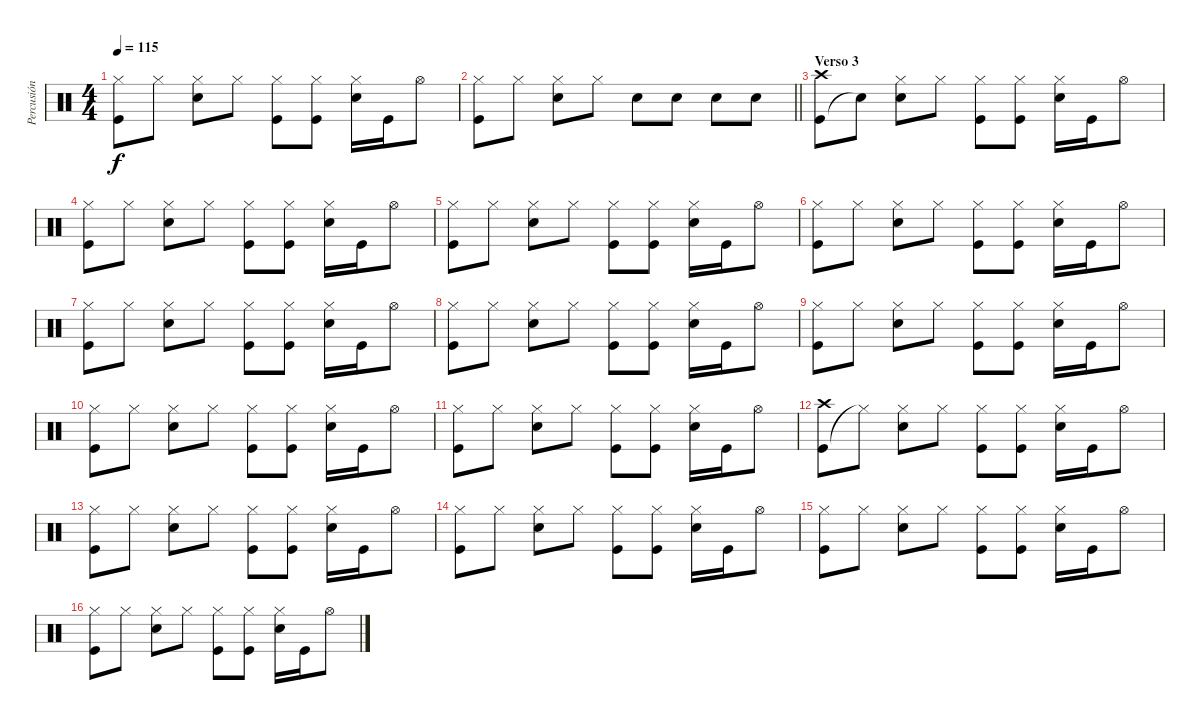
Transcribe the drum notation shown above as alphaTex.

\track ("Percusión" "Percusión") {instrument percussion}
\staff {score}
\articulation defaults
\ts (4 4)
\tempo 115
\clef neutral
\ks c
("Kick (hit)" "Hi-Hat (closed)").8{dy f} "Hi-Hat (closed)".8 ("Snare (hit) 2" "Hi-Hat (closed)").8 "Hi-Hat (closed)".8 ("Kick (hit)" "Hi-Hat (closed)").8 ("Kick (hit)" "Hi-Hat (closed)").8 ("Snare (hit) 2" "Hi-Hat (closed)").16 "Kick (hit)".16 "Hi-Hat (open)".8 |
\barLineRight lightlight
("Kick (hit)" "Hi-Hat (closed)").8 "Hi-Hat (closed)".8 ("Snare (hit) 2" "Hi-Hat (closed)").8 "Hi-Hat (closed)".8 "Snare (hit) 2".8 "Snare (hit) 2".8 "Snare (hit) 2".8 "Snare (hit) 2".8 |
\section ("" "Verso 3")
("Kick (hit)" "Crash high (hit)").8 "Snare (hit)"{t}.8 ("Snare (hit) 2" "Hi-Hat (closed)").8 "Hi-Hat (closed)".8 ("Kick (hit)" "Hi-Hat (closed)").8 ("Kick (hit)" "Hi-Hat (closed)").8 ("Snare (hit) 2" "Hi-Hat (closed)").16 "Kick (hit)".16 "Hi-Hat (open)".8 |
("Kick (hit)" "Hi-Hat (closed)").8 "Hi-Hat (closed)".8 ("Snare (hit) 2" "Hi-Hat (closed)").8 "Hi-Hat (closed)".8 ("Kick (hit)" "Hi-Hat (closed)").8 ("Kick (hit)" "Hi-Hat (closed)").8 ("Snare (hit) 2" "Hi-Hat (closed)").16 "Kick (hit)".16 "Hi-Hat (open)".8 |
("Kick (hit)" "Hi-Hat (closed)").8 "Hi-Hat (closed)".8 ("Snare (hit) 2" "Hi-Hat (closed)").8 "Hi-Hat (closed)".8 ("Kick (hit)" "Hi-Hat (closed)").8 ("Kick (hit)" "Hi-Hat (closed)").8 ("Snare (hit) 2" "Hi-Hat (closed)").16 "Kick (hit)".16 "Hi-Hat (open)".8 |
("Kick (hit)" "Hi-Hat (closed)").8 "Hi-Hat (closed)".8 ("Snare (hit) 2" "Hi-Hat (closed)").8 "Hi-Hat (closed)".8 ("Kick (hit)" "Hi-Hat (closed)").8 ("Kick (hit)" "Hi-Hat (closed)").8 ("Snare (hit) 2" "Hi-Hat (closed)").16 "Kick (hit)".16 "Hi-Hat (open)".8 |
("Kick (hit)" "Hi-Hat (closed)").8 "Hi-Hat (closed)".8 ("Snare (hit) 2" "Hi-Hat (closed)").8 "Hi-Hat (closed)".8 ("Kick (hit)" "Hi-Hat (closed)").8 ("Kick (hit)" "Hi-Hat (closed)").8 ("Snare (hit) 2" "Hi-Hat (closed)").16 "Kick (hit)".16 "Hi-Hat (open)".8 |
("Kick (hit)" "Hi-Hat (closed)").8 "Hi-Hat (closed)".8 ("Snare (hit) 2" "Hi-Hat (closed)").8 "Hi-Hat (closed)".8 ("Kick (hit)" "Hi-Hat (closed)").8 ("Kick (hit)" "Hi-Hat (closed)").8 ("Snare (hit) 2" "Hi-Hat (closed)").16 "Kick (hit)".16 "Hi-Hat (open)".8 |
("Kick (hit)" "Hi-Hat (closed)").8 "Hi-Hat (closed)".8 ("Snare (hit) 2" "Hi-Hat (closed)").8 "Hi-Hat (closed)".8 ("Kick (hit)" "Hi-Hat (closed)").8 ("Kick (hit)" "Hi-Hat (closed)").8 ("Snare (hit) 2" "Hi-Hat (closed)").16 "Kick (hit)".16 "Hi-Hat (open)".8 |
("Kick (hit)" "Hi-Hat (closed)").8 "Hi-Hat (closed)".8 ("Snare (hit) 2" "Hi-Hat (closed)").8 "Hi-Hat (closed)".8 ("Kick (hit)" "Hi-Hat (closed)").8 ("Kick (hit)" "Hi-Hat (closed)").8 ("Snare (hit) 2" "Hi-Hat (closed)").16 "Kick (hit)".16 "Hi-Hat (open)".8 |
("Kick (hit)" "Hi-Hat (closed)").8 "Hi-Hat (closed)".8 ("Snare (hit) 2" "Hi-Hat (closed)").8 "Hi-Hat (closed)".8 ("Kick (hit)" "Hi-Hat (closed)").8 ("Kick (hit)" "Hi-Hat (closed)").8 ("Snare (hit) 2" "Hi-Hat (closed)").16 "Kick (hit)".16 "Hi-Hat (open)".8 |
("Kick (hit)" "Crash high (hit)").8 "Hi-Hat (closed)"{t}.8 ("Snare (hit) 2" "Hi-Hat (closed)").8 "Hi-Hat (closed)".8 ("Kick (hit)" "Hi-Hat (closed)").8 ("Kick (hit)" "Hi-Hat (closed)").8 ("Snare (hit) 2" "Hi-Hat (closed)").16 "Kick (hit)".16 "Hi-Hat (open)".8 |
("Kick (hit)" "Hi-Hat (closed)").8 "Hi-Hat (closed)".8 ("Snare (hit) 2" "Hi-Hat (closed)").8 "Hi-Hat (closed)".8 ("Kick (hit)" "Hi-Hat (closed)").8 ("Kick (hit)" "Hi-Hat (closed)").8 ("Snare (hit) 2" "Hi-Hat (closed)").16 "Kick (hit)".16 "Hi-Hat (open)".8 |
("Kick (hit)" "Hi-Hat (closed)").8 "Hi-Hat (closed)".8 ("Snare (hit) 2" "Hi-Hat (closed)").8 "Hi-Hat (closed)".8 ("Kick (hit)" "Hi-Hat (closed)").8 ("Kick (hit)" "Hi-Hat (closed)").8 ("Snare (hit) 2" "Hi-Hat (closed)").16 "Kick (hit)".16 "Hi-Hat (open)".8 |
("Kick (hit)" "Hi-Hat (closed)").8 "Hi-Hat (closed)".8 ("Snare (hit) 2" "Hi-Hat (closed)").8 "Hi-Hat (closed)".8 ("Kick (hit)" "Hi-Hat (closed)").8 ("Kick (hit)" "Hi-Hat (closed)").8 ("Snare (hit) 2" "Hi-Hat (closed)").16 "Kick (hit)".16 "Hi-Hat (open)".8 |
("Kick (hit)" "Hi-Hat (closed)").8 "Hi-Hat (closed)".8 ("Snare (hit) 2" "Hi-Hat (closed)").8 "Hi-Hat (closed)".8 ("Kick (hit)" "Hi-Hat (closed)").8 ("Kick (hit)" "Hi-Hat (closed)").8 ("Snare (hit) 2" "Hi-Hat (closed)").16 "Kick (hit)".16 "Hi-Hat (open)".8
